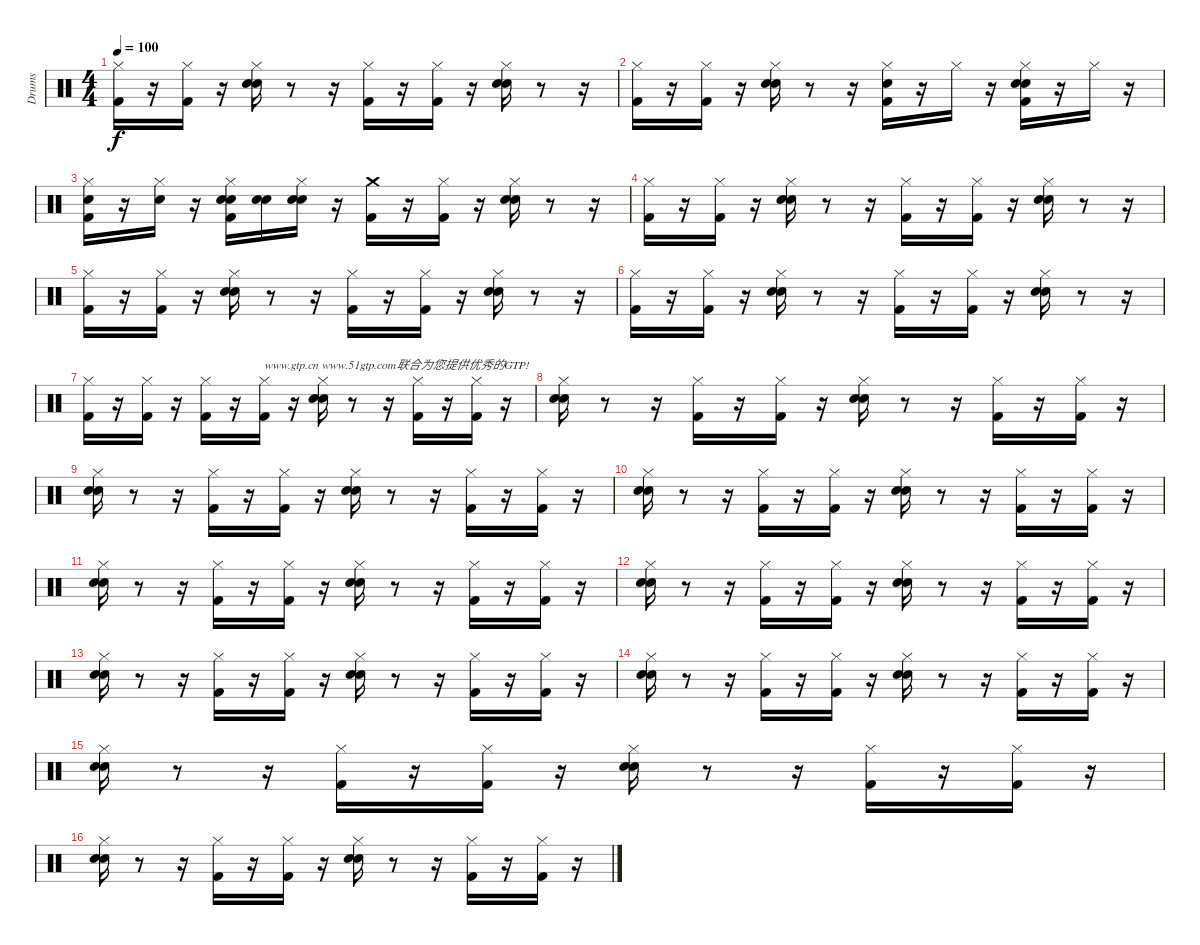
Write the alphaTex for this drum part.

\track ("Drums" "Drums") {instrument percussion}
\staff {score}
\articulation defaults
\ts (4 4)
\tempo 100
\clef neutral
\ks c
("Hi-Hat (closed)" "Kick (hit) 2").16{dy f} r.16 ("Kick (hit) 2" "Hi-Hat (closed)").16 r.16 ("Hand Clap (hit)" "Hi-Hat (closed)" "Snare (hit) 2").16 r.8 r.16 ("Hi-Hat (closed)" "Kick (hit) 2").16 r.16 ("Hi-Hat (closed)" "Kick (hit) 2").16 r.16 ("Snare (hit) 2" "Hand Clap (hit)" "Hi-Hat (closed)").16 r.8 r.16 |
("Hi-Hat (closed)" "Kick (hit) 2").16 r.16 ("Hi-Hat (closed)" "Kick (hit) 2").16 r.16 ("Snare (hit) 2" "Hand Clap (hit)" "Hi-Hat (closed)").16 r.8 r.16 ("Kick (hit) 2" "Snare (hit) 2" "Hi-Hat (closed)").16 r.16 "Hi-Hat (closed)".16 r.16 ("Hi-Hat (closed)" "Hand Clap (hit)" "Snare (hit) 2" "Kick (hit) 2").16 r.16 "Hi-Hat (closed)".16 r.16 |
("Kick (hit) 2" "Hi-Hat (closed)" "Snare (hit) 2").16 r.16 ("Hi-Hat (closed)" "Snare (hit) 2").16 r.16 ("Kick (hit) 2" "Hi-Hat (closed)" "Snare (hit) 2" "Hand Clap (hit)").16 ("Snare (hit)" "Snare (hit) 2").16 ("Snare (hit)" "Snare (hit) 2" "Hi-Hat (closed)").16 r.16 ("Kick (hit) 2" "Crash medium (hit)").16 r.16 ("Hi-Hat (closed)" "Kick (hit) 2").16 r.16 ("Hi-Hat (closed)" "Snare (hit) 2" "Hand Clap (hit)").16 r.8 r.16 |
("Kick (hit) 2" "Hi-Hat (closed)").16 r.16 ("Hi-Hat (closed)" "Kick (hit) 2").16 r.16 ("Hand Clap (hit)" "Snare (hit) 2" "Hi-Hat (closed)").16 r.8 r.16 ("Kick (hit) 2" "Hi-Hat (closed)").16 r.16 ("Hi-Hat (closed)" "Kick (hit) 2").16 r.16 ("Hand Clap (hit)" "Snare (hit) 2" "Hi-Hat (closed)").16 r.8 r.16 |
("Hi-Hat (closed)" "Kick (hit) 2").16 r.16 ("Kick (hit) 2" "Hi-Hat (closed)").16 r.16 ("Snare (hit) 2" "Hi-Hat (closed)" "Hand Clap (hit)").16 r.8 r.16 ("Kick (hit) 2" "Hi-Hat (closed)").16 r.16 ("Kick (hit) 2" "Hi-Hat (closed)").16 r.16 ("Hi-Hat (closed)" "Hand Clap (hit)" "Snare (hit) 2").16 r.8 r.16 |
("Kick (hit) 2" "Hi-Hat (closed)").16 r.16 ("Kick (hit) 2" "Hi-Hat (closed)").16 r.16 ("Hand Clap (hit)" "Snare (hit) 2" "Hi-Hat (closed)").16 r.8 r.16 ("Kick (hit) 2" "Hi-Hat (closed)").16 r.16 ("Hi-Hat (closed)" "Kick (hit) 2").16 r.16 ("Hi-Hat (closed)" "Snare (hit) 2" "Hand Clap (hit)").16 r.8 r.16 |
("Kick (hit) 2" "Hi-Hat (closed)").16 r.16 ("Hi-Hat (closed)" "Kick (hit) 2").16 r.16 ("Kick (hit) 2" "Hi-Hat (closed)").16 r.16 ("Hi-Hat (closed)" "Kick (hit) 2").16{txt "www.gtp.cn www.51gtp.com联合为您提供优秀的GTP!"} r.16 ("Hand Clap (hit)" "Snare (hit) 2" "Hi-Hat (closed)").16 r.8 r.16 ("Kick (hit) 2" "Hi-Hat (closed)").16 r.16 ("Kick (hit) 2" "Hi-Hat (closed)").16 r.16 |
("Snare (hit) 2" "Hi-Hat (closed)" "Hand Clap (hit)").16 r.8 r.16 ("Hi-Hat (closed)" "Kick (hit) 2").16 r.16 ("Hi-Hat (closed)" "Kick (hit) 2").16 r.16 ("Hand Clap (hit)" "Hi-Hat (closed)" "Snare (hit) 2").16 r.8 r.16 ("Hi-Hat (closed)" "Kick (hit) 2").16 r.16 ("Kick (hit) 2" "Hi-Hat (closed)").16 r.16 |
("Snare (hit) 2" "Hand Clap (hit)" "Hi-Hat (closed)").16 r.8 r.16 ("Hi-Hat (closed)" "Kick (hit) 2").16 r.16 ("Hi-Hat (closed)" "Kick (hit) 2").16 r.16 ("Hi-Hat (closed)" "Hand Clap (hit)" "Snare (hit) 2").16 r.8 r.16 ("Hi-Hat (closed)" "Kick (hit) 2").16 r.16 ("Hi-Hat (closed)" "Kick (hit) 2").16 r.16 |
("Hand Clap (hit)" "Hi-Hat (closed)" "Snare (hit) 2").16 r.8 r.16 ("Kick (hit) 2" "Hi-Hat (closed)").16 r.16 ("Hi-Hat (closed)" "Kick (hit) 2").16 r.16 ("Hi-Hat (closed)" "Snare (hit) 2" "Hand Clap (hit)").16 r.8 r.16 ("Hi-Hat (closed)" "Kick (hit) 2").16 r.16 ("Kick (hit) 2" "Hi-Hat (closed)").16 r.16 |
("Hand Clap (hit)" "Hi-Hat (closed)" "Snare (hit) 2").16 r.8 r.16 ("Kick (hit) 2" "Hi-Hat (closed)").16 r.16 ("Kick (hit) 2" "Hi-Hat (closed)").16 r.16 ("Snare (hit) 2" "Hand Clap (hit)" "Hi-Hat (closed)").16 r.8 r.16 ("Hi-Hat (closed)" "Kick (hit) 2").16 r.16 ("Hi-Hat (closed)" "Kick (hit) 2").16 r.16 |
("Snare (hit) 2" "Hi-Hat (closed)" "Hand Clap (hit)").16 r.8 r.16 ("Kick (hit) 2" "Hi-Hat (closed)").16 r.16 ("Hi-Hat (closed)" "Kick (hit) 2").16 r.16 ("Snare (hit) 2" "Hand Clap (hit)" "Hi-Hat (closed)").16 r.8 r.16 ("Hi-Hat (closed)" "Kick (hit) 2").16 r.16 ("Hi-Hat (closed)" "Kick (hit) 2").16 r.16 |
("Hand Clap (hit)" "Snare (hit) 2" "Hi-Hat (closed)").16 r.8 r.16 ("Kick (hit) 2" "Hi-Hat (closed)").16 r.16 ("Kick (hit) 2" "Hi-Hat (closed)").16 r.16 ("Snare (hit) 2" "Hi-Hat (closed)" "Hand Clap (hit)").16 r.8 r.16 ("Kick (hit) 2" "Hi-Hat (closed)").16 r.16 ("Hi-Hat (closed)" "Kick (hit) 2").16 r.16 |
("Snare (hit) 2" "Hi-Hat (closed)" "Hand Clap (hit)").16 r.8 r.16 ("Kick (hit) 2" "Hi-Hat (closed)").16 r.16 ("Kick (hit) 2" "Hi-Hat (closed)").16 r.16 ("Hi-Hat (closed)" "Snare (hit) 2" "Hand Clap (hit)").16 r.8 r.16 ("Hi-Hat (closed)" "Kick (hit) 2").16 r.16 ("Hi-Hat (closed)" "Kick (hit) 2").16 r.16 |
("Hi-Hat (closed)" "Hand Clap (hit)" "Snare (hit) 2").16 r.8 r.16 ("Hi-Hat (closed)" "Kick (hit) 2").16 r.16 ("Kick (hit) 2" "Hi-Hat (closed)").16 r.16 ("Hi-Hat (closed)" "Snare (hit) 2" "Hand Clap (hit)").16 r.8 r.16 ("Kick (hit) 2" "Hi-Hat (closed)").16 r.16 ("Hi-Hat (closed)" "Kick (hit) 2").16 r.16 |
("Snare (hit) 2" "Hand Clap (hit)" "Hi-Hat (closed)").16 r.8 r.16 ("Kick (hit) 2" "Hi-Hat (closed)").16 r.16 ("Kick (hit) 2" "Hi-Hat (closed)").16 r.16 ("Snare (hit) 2" "Hand Clap (hit)" "Hi-Hat (closed)").16 r.8 r.16 ("Hi-Hat (closed)" "Kick (hit) 2").16 r.16 ("Kick (hit) 2" "Hi-Hat (closed)").16 r.16
